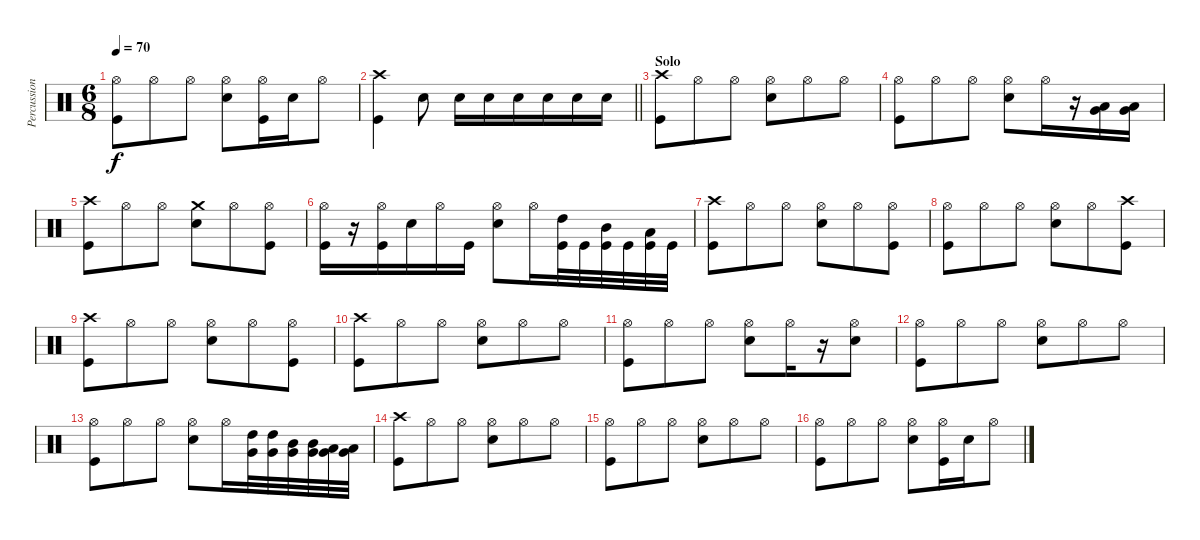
\track ("Percussion" "Percussion") {instrument percussion}
\staff {score}
\articulation defaults
\ts (6 8)
\tempo 70
\clef neutral
\ks c
("Kick (hit)" "Hi-Hat (open)").8{dy f} "Hi-Hat (open)".8 "Hi-Hat (open)".8 ("Electric Snare (hit)" "Hi-Hat (open)").8 ("Kick (hit)" "Hi-Hat (open)").16 "Electric Snare (hit)".16 "Hi-Hat (open)".8 |
\barLineRight lightlight
("Kick (hit)" "Crash high (hit)").4 "Electric Snare (hit)".8 "Electric Snare (hit)".16 "Electric Snare (hit)".16 "Electric Snare (hit)".16 "Electric Snare (hit)".16 "Electric Snare (hit)".16 "Electric Snare (hit)".16 |
\section ("" "Solo")
("Kick (hit)" "Crash high (hit)").8{volume 16} "Hi-Hat (open)".8 "Hi-Hat (open)".8 ("Electric Snare (hit)" "Hi-Hat (open)").8 "Hi-Hat (open)".8 "Hi-Hat (open)".8 |
("Kick (hit)" "Hi-Hat (open)").8 "Hi-Hat (open)".8 "Hi-Hat (open)".8 ("Electric Snare (hit)" "Hi-Hat (open)").8 "Hi-Hat (open)".16 r.16 ("Low Tom (hit)" "Very Low Tom (hit)").16 ("Low Tom (hit)" "Very Low Tom (hit)").16 |
("Kick (hit)" "Crash high (hit)").8 "Hi-Hat (open)".8 "Hi-Hat (open)".8 ("Electric Snare (hit)" "Crash medium (hit)").8 "Hi-Hat (open)".8 ("Kick (hit)" "Hi-Hat (open)").8 |
("Kick (hit)" "Hi-Hat (open)").16 r.16 ("Kick (hit)" "Hi-Hat (open)").16 "Electric Snare (hit)".16 "Hi-Hat (open)".16 "Kick (hit)".16 ("Electric Snare (hit)" "Hi-Hat (open)").8 "Hi-Hat (open)".16 ("Kick (hit)" "High Tom (hit)").32 "Kick (hit)".32 ("Kick (hit)" "Mid Tom (hit)").32 "Kick (hit)".32 ("Kick (hit)" "Low Tom (hit)").32 "Kick (hit)".32 |
("Kick (hit)" "Crash high (hit)").8 "Hi-Hat (open)".8 "Hi-Hat (open)".8 ("Electric Snare (hit)" "Hi-Hat (open)").8 "Hi-Hat (open)".8 ("Kick (hit)" "Hi-Hat (open)").8 |
("Kick (hit)" "Hi-Hat (open)").8 "Hi-Hat (open)".8 "Hi-Hat (open)".8 ("Electric Snare (hit)" "Hi-Hat (open)").8 "Hi-Hat (open)".8 ("Kick (hit)" "Crash high (hit)").8 |
("Kick (hit)" "Crash high (hit)").8 "Hi-Hat (open)".8 "Hi-Hat (open)".8 ("Electric Snare (hit)" "Hi-Hat (open)").8 "Hi-Hat (open)".8 ("Kick (hit)" "Hi-Hat (open)").8 |
("Kick (hit)" "Crash high (hit)").8 "Hi-Hat (open)".8 "Hi-Hat (open)".8 ("Electric Snare (hit)" "Hi-Hat (open)").8 "Hi-Hat (open)".8 "Hi-Hat (open)".8 |
("Kick (hit)" "Hi-Hat (open)").8 "Hi-Hat (open)".8 "Hi-Hat (open)".8 ("Electric Snare (hit)" "Hi-Hat (open)").8 "Hi-Hat (open)".16 r.16 ("Electric Snare (hit)" "Hi-Hat (open)").8 |
("Kick (hit)" "Hi-Hat (open)").8 "Hi-Hat (open)".8 "Hi-Hat (open)".8 ("Electric Snare (hit)" "Hi-Hat (open)").8 "Hi-Hat (open)".8 "Hi-Hat (open)".8 |
("Kick (hit)" "Hi-Hat (open)").8 "Hi-Hat (open)".8 "Hi-Hat (open)".8 ("Electric Snare (hit)" "Hi-Hat (open)").8 "Hi-Hat (open)".16 ("High Tom (hit)" "Very Low Tom (hit)").32 ("High Tom (hit)" "Very Low Tom (hit)").32 ("Mid Tom (hit)" "Very Low Tom (hit)").32 ("Mid Tom (hit)" "Very Low Tom (hit)").32 ("Low Tom (hit)" "Very Low Tom (hit)").32 ("Low Tom (hit)" "Very Low Tom (hit)").32 |
("Kick (hit)" "Crash high (hit)").8 "Hi-Hat (open)".8 "Hi-Hat (open)".8 ("Electric Snare (hit)" "Hi-Hat (open)").8 "Hi-Hat (open)".8 "Hi-Hat (open)".8 |
("Kick (hit)" "Hi-Hat (open)").8 "Hi-Hat (open)".8 "Hi-Hat (open)".8 ("Electric Snare (hit)" "Hi-Hat (open)").8 "Hi-Hat (open)".8 "Hi-Hat (open)".8 |
("Kick (hit)" "Hi-Hat (open)").8 "Hi-Hat (open)".8 "Hi-Hat (open)".8 ("Electric Snare (hit)" "Hi-Hat (open)").8 ("Kick (hit)" "Hi-Hat (open)").16 "Electric Snare (hit)".16 "Hi-Hat (open)".8
